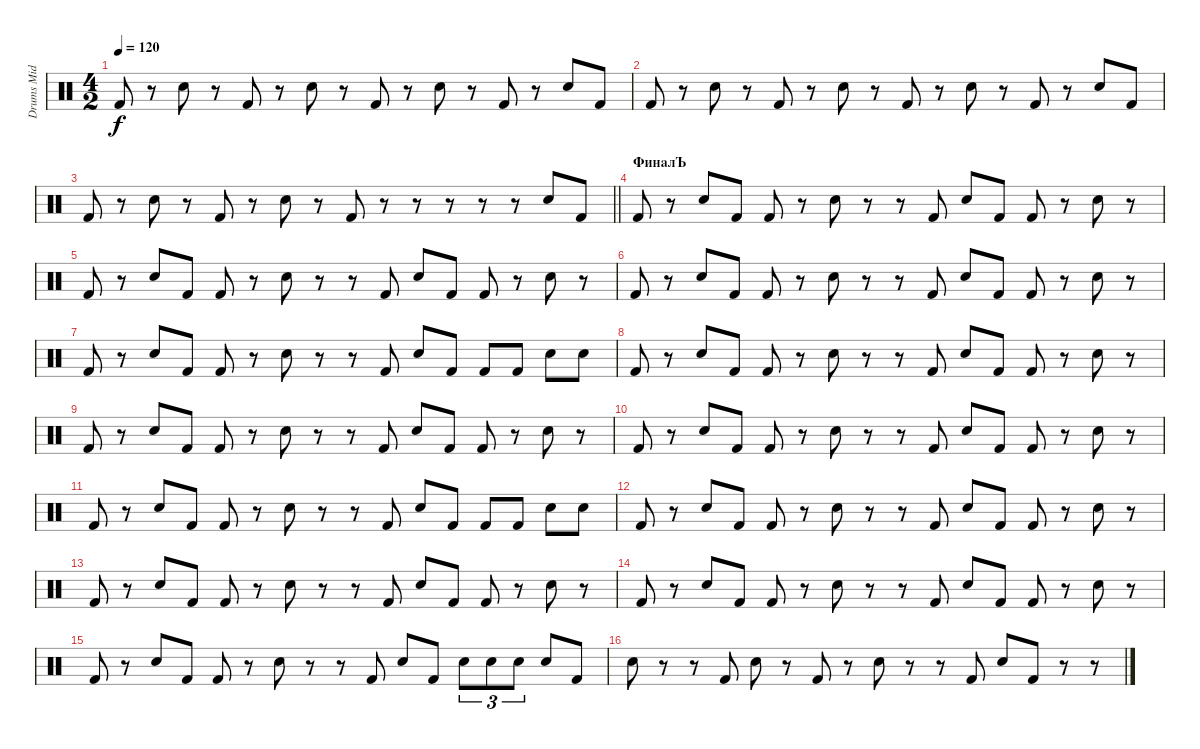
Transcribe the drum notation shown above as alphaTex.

\track ("Drums Mid" "Drums Mid") {instrument percussion}
\staff {score}
\articulation defaults
\ts (4 2)
\tempo 120
\clef neutral
\ks c "Kick (hit) 2".8{dy f}
r.8 "Snare (hit) 2".8 r.8 "Kick (hit) 2".8 r.8 "Snare (hit) 2".8 r.8 "Kick (hit) 2".8 r.8 "Snare (hit) 2".8 r.8 "Kick (hit) 2".8 r.8 "Snare (hit) 2".8 "Kick (hit) 2".8 |
"Kick (hit) 2".8 r.8 "Snare (hit) 2".8 r.8 "Kick (hit) 2".8 r.8 "Snare (hit) 2".8 r.8 "Kick (hit) 2".8 r.8 "Snare (hit) 2".8 r.8 "Kick (hit) 2".8 r.8 "Snare (hit) 2".8 "Kick (hit) 2".8 |
\barLineRight lightlight "Kick (hit) 2".8
r.8 "Snare (hit) 2".8 r.8 "Kick (hit) 2".8 r.8 "Snare (hit) 2".8 r.8 "Kick (hit) 2".8 r.8 r.8 r.8 r.8 r.8 "Snare (hit) 2".8 "Kick (hit) 2".8 |
\section ("" "ФиналЪ")
"Kick (hit) 2".8 r.8 "Snare (hit) 2".8 "Kick (hit) 2".8 "Kick (hit) 2".8 r.8 "Snare (hit) 2".8 r.8 r.8 "Kick (hit) 2".8 "Snare (hit) 2".8 "Kick (hit) 2".8 "Kick (hit) 2".8 r.8 "Snare (hit) 2".8 r.8 |
"Kick (hit) 2".8 r.8 "Snare (hit) 2".8 "Kick (hit) 2".8 "Kick (hit) 2".8 r.8 "Snare (hit) 2".8 r.8 r.8 "Kick (hit) 2".8 "Snare (hit) 2".8 "Kick (hit) 2".8 "Kick (hit) 2".8 r.8 "Snare (hit) 2".8 r.8 |
"Kick (hit) 2".8 r.8 "Snare (hit) 2".8 "Kick (hit) 2".8 "Kick (hit) 2".8 r.8 "Snare (hit) 2".8 r.8 r.8 "Kick (hit) 2".8 "Snare (hit) 2".8 "Kick (hit) 2".8 "Kick (hit) 2".8 r.8 "Snare (hit) 2".8 r.8 |
"Kick (hit) 2".8 r.8 "Snare (hit) 2".8 "Kick (hit) 2".8 "Kick (hit) 2".8 r.8 "Snare (hit) 2".8 r.8 r.8 "Kick (hit) 2".8 "Snare (hit) 2".8 "Kick (hit) 2".8 "Kick (hit) 2".8 "Kick (hit) 2".8 "Snare (hit) 2".8 "Snare (hit) 2".8 |
"Kick (hit) 2".8 r.8 "Snare (hit) 2".8 "Kick (hit) 2".8 "Kick (hit) 2".8 r.8 "Snare (hit) 2".8 r.8 r.8 "Kick (hit) 2".8 "Snare (hit) 2".8 "Kick (hit) 2".8 "Kick (hit) 2".8 r.8 "Snare (hit) 2".8 r.8 |
"Kick (hit) 2".8 r.8 "Snare (hit) 2".8 "Kick (hit) 2".8 "Kick (hit) 2".8 r.8 "Snare (hit) 2".8 r.8 r.8 "Kick (hit) 2".8 "Snare (hit) 2".8 "Kick (hit) 2".8 "Kick (hit) 2".8 r.8 "Snare (hit) 2".8 r.8 |
"Kick (hit) 2".8 r.8 "Snare (hit) 2".8 "Kick (hit) 2".8 "Kick (hit) 2".8 r.8 "Snare (hit) 2".8 r.8 r.8 "Kick (hit) 2".8 "Snare (hit) 2".8 "Kick (hit) 2".8 "Kick (hit) 2".8 r.8 "Snare (hit) 2".8 r.8 |
"Kick (hit) 2".8 r.8 "Snare (hit) 2".8 "Kick (hit) 2".8 "Kick (hit) 2".8 r.8 "Snare (hit) 2".8 r.8 r.8 "Kick (hit) 2".8 "Snare (hit) 2".8 "Kick (hit) 2".8 "Kick (hit) 2".8 "Kick (hit) 2".8 "Snare (hit) 2".8 "Snare (hit) 2".8 |
"Kick (hit) 2".8 r.8 "Snare (hit) 2".8 "Kick (hit) 2".8 "Kick (hit) 2".8 r.8 "Snare (hit) 2".8 r.8 r.8 "Kick (hit) 2".8 "Snare (hit) 2".8 "Kick (hit) 2".8 "Kick (hit) 2".8 r.8 "Snare (hit) 2".8 r.8 |
"Kick (hit) 2".8 r.8 "Snare (hit) 2".8 "Kick (hit) 2".8 "Kick (hit) 2".8 r.8 "Snare (hit) 2".8 r.8 r.8 "Kick (hit) 2".8 "Snare (hit) 2".8 "Kick (hit) 2".8 "Kick (hit) 2".8 r.8 "Snare (hit) 2".8 r.8 |
"Kick (hit) 2".8 r.8 "Snare (hit) 2".8 "Kick (hit) 2".8 "Kick (hit) 2".8 r.8 "Snare (hit) 2".8 r.8 r.8 "Kick (hit) 2".8 "Snare (hit) 2".8 "Kick (hit) 2".8 "Kick (hit) 2".8 r.8 "Snare (hit) 2".8 r.8 |
"Kick (hit) 2".8 r.8 "Snare (hit) 2".8 "Kick (hit) 2".8 "Kick (hit) 2".8 r.8 "Snare (hit) 2".8 r.8 r.8 "Kick (hit) 2".8 "Snare (hit) 2".8 "Kick (hit) 2".8 "Snare (hit) 2".8{tu (3 2)} "Snare (hit) 2".8{tu (3 2)} "Snare (hit) 2".8{tu (3 2)} "Snare (hit) 2".8 "Kick (hit) 2".8 |
"Snare (hit) 2".8 r.8 r.8 "Kick (hit) 2".8 "Snare (hit) 2".8 r.8 "Kick (hit) 2".8 r.8 "Snare (hit) 2".8 r.8 r.8 "Kick (hit) 2".8 "Snare (hit) 2".8 "Kick (hit) 2".8 r.8 r.8
